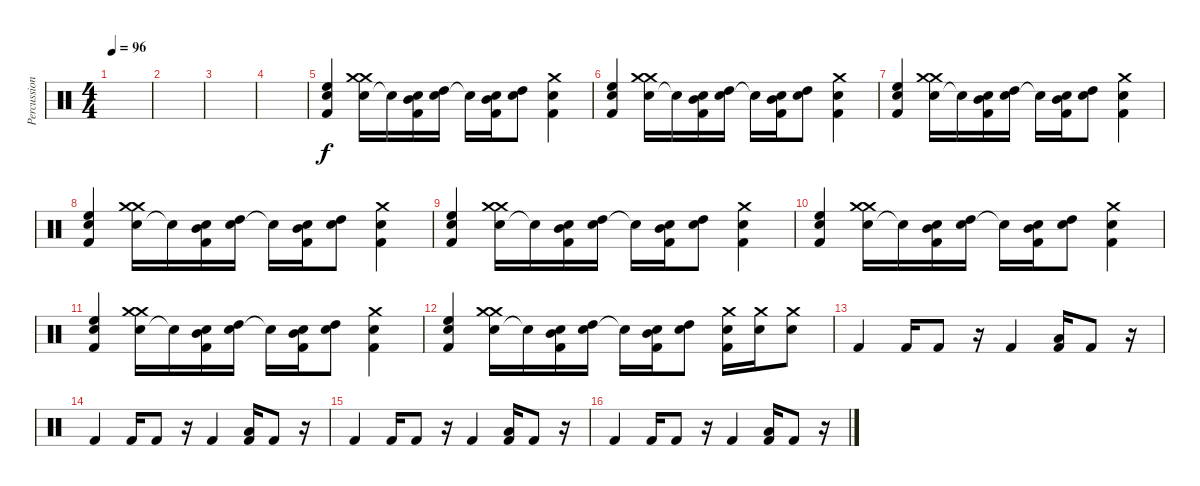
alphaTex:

\track ("Percussion" "Percussion") {instrument percussion}
\staff {score}
\articulation defaults
\ts (4 4)
\tempo 96
\clef neutral
\ks c
|
|
|
|
("Electric Snare (hit)" "High Floor Tom (hit)" "Kick (hit) 2").4 ("Electric Snare (hit)" "Crash medium (hit)" "Crash medium (hit)").16 "Electric Snare (hit)"{t}.16 ("Electric Snare (hit)" "Mid Tom (hit)" "Kick (hit) 2").16 ("Electric Snare (hit)" "High Tom (hit)").16 "Electric Snare (hit)"{t}.16 ("Electric Snare (hit)" "Mid Tom (hit)" "Kick (hit) 2").16 ("Electric Snare (hit)" "High Tom (hit)").8 ("Electric Snare (hit)" "Kick (hit) 2" "Crash medium (hit)").4 |
("Electric Snare (hit)" "High Floor Tom (hit)" "Kick (hit) 2").4 ("Electric Snare (hit)" "Crash medium (hit)" "Crash medium (hit)").16 "Electric Snare (hit)"{t}.16 ("Electric Snare (hit)" "Mid Tom (hit)" "Kick (hit) 2").16 ("Electric Snare (hit)" "High Tom (hit)").16 "Electric Snare (hit)"{t}.16 ("Electric Snare (hit)" "Mid Tom (hit)" "Kick (hit) 2").16 ("Electric Snare (hit)" "High Tom (hit)").8 ("Electric Snare (hit)" "Kick (hit) 2" "Crash medium (hit)").4 |
("Electric Snare (hit)" "High Floor Tom (hit)" "Kick (hit) 2").4 ("Electric Snare (hit)" "Crash medium (hit)" "Crash medium (hit)").16 "Electric Snare (hit)"{t}.16 ("Electric Snare (hit)" "Mid Tom (hit)" "Kick (hit) 2").16 ("Electric Snare (hit)" "High Tom (hit)").16 "Electric Snare (hit)"{t}.16 ("Electric Snare (hit)" "Mid Tom (hit)" "Kick (hit) 2").16 ("Electric Snare (hit)" "High Tom (hit)").8 ("Electric Snare (hit)" "Kick (hit) 2" "Crash medium (hit)").4 |
("Electric Snare (hit)" "High Floor Tom (hit)" "Kick (hit) 2").4 ("Electric Snare (hit)" "Crash medium (hit)" "Crash medium (hit)").16 "Electric Snare (hit)"{t}.16 ("Electric Snare (hit)" "Mid Tom (hit)" "Kick (hit) 2").16 ("Electric Snare (hit)" "High Tom (hit)").16 "Electric Snare (hit)"{t}.16 ("Electric Snare (hit)" "Mid Tom (hit)" "Kick (hit) 2").16 ("Electric Snare (hit)" "High Tom (hit)").8 ("Electric Snare (hit)" "Kick (hit) 2" "Crash medium (hit)").4 |
("Electric Snare (hit)" "High Floor Tom (hit)" "Kick (hit) 2").4 ("Electric Snare (hit)" "Crash medium (hit)" "Crash medium (hit)").16 "Electric Snare (hit)"{t}.16 ("Electric Snare (hit)" "Mid Tom (hit)" "Kick (hit) 2").16 ("Electric Snare (hit)" "High Tom (hit)").16 "Electric Snare (hit)"{t}.16 ("Electric Snare (hit)" "Mid Tom (hit)" "Kick (hit) 2").16 ("Electric Snare (hit)" "High Tom (hit)").8 ("Electric Snare (hit)" "Kick (hit) 2" "Crash medium (hit)").4 |
("Electric Snare (hit)" "High Floor Tom (hit)" "Kick (hit) 2").4 ("Electric Snare (hit)" "Crash medium (hit)" "Crash medium (hit)").16 "Electric Snare (hit)"{t}.16 ("Electric Snare (hit)" "Mid Tom (hit)" "Kick (hit) 2").16 ("Electric Snare (hit)" "High Tom (hit)").16 "Electric Snare (hit)"{t}.16 ("Electric Snare (hit)" "Mid Tom (hit)" "Kick (hit) 2").16 ("Electric Snare (hit)" "High Tom (hit)").8 ("Electric Snare (hit)" "Kick (hit) 2" "Crash medium (hit)").4 |
("Electric Snare (hit)" "High Floor Tom (hit)" "Kick (hit) 2").4 ("Electric Snare (hit)" "Crash medium (hit)" "Crash medium (hit)").16 "Electric Snare (hit)"{t}.16 ("Electric Snare (hit)" "Mid Tom (hit)" "Kick (hit) 2").16 ("Electric Snare (hit)" "High Tom (hit)").16 "Electric Snare (hit)"{t}.16 ("Electric Snare (hit)" "Mid Tom (hit)" "Kick (hit) 2").16 ("Electric Snare (hit)" "High Tom (hit)").8 ("Electric Snare (hit)" "Kick (hit) 2" "Crash medium (hit)").4 |
("Electric Snare (hit)" "High Floor Tom (hit)" "Kick (hit) 2").4 ("Electric Snare (hit)" "Crash medium (hit)" "Crash medium (hit)").16 "Electric Snare (hit)"{t}.16 ("Electric Snare (hit)" "Mid Tom (hit)" "Kick (hit) 2").16 ("Electric Snare (hit)" "High Tom (hit)").16 "Electric Snare (hit)"{t}.16 ("Electric Snare (hit)" "Mid Tom (hit)" "Kick (hit) 2").16 ("Electric Snare (hit)" "High Tom (hit)").8 ("Electric Snare (hit)" "Kick (hit) 2" "Crash medium (hit)").16 ("Electric Snare (hit)" "Crash medium (hit)").16 ("Electric Snare (hit)" "Crash medium (hit)").8 |
"Kick (hit) 2".4 "Kick (hit) 2".16 "Kick (hit) 2".8 r.16 "Kick (hit) 2".4 ("Low Tom (hit)" "Kick (hit) 2").16 "Kick (hit) 2".8 r.16 |
"Kick (hit) 2".4 "Kick (hit) 2".16 "Kick (hit) 2".8 r.16 "Kick (hit) 2".4 ("Low Tom (hit)" "Kick (hit) 2").16 "Kick (hit) 2".8 r.16 |
"Kick (hit) 2".4 "Kick (hit) 2".16 "Kick (hit) 2".8 r.16 "Kick (hit) 2".4 ("Low Tom (hit)" "Kick (hit) 2").16 "Kick (hit) 2".8 r.16 |
"Kick (hit) 2".4 "Kick (hit) 2".16 "Kick (hit) 2".8 r.16 "Kick (hit) 2".4 ("Low Tom (hit)" "Kick (hit) 2").16 "Kick (hit) 2".8 r.16
